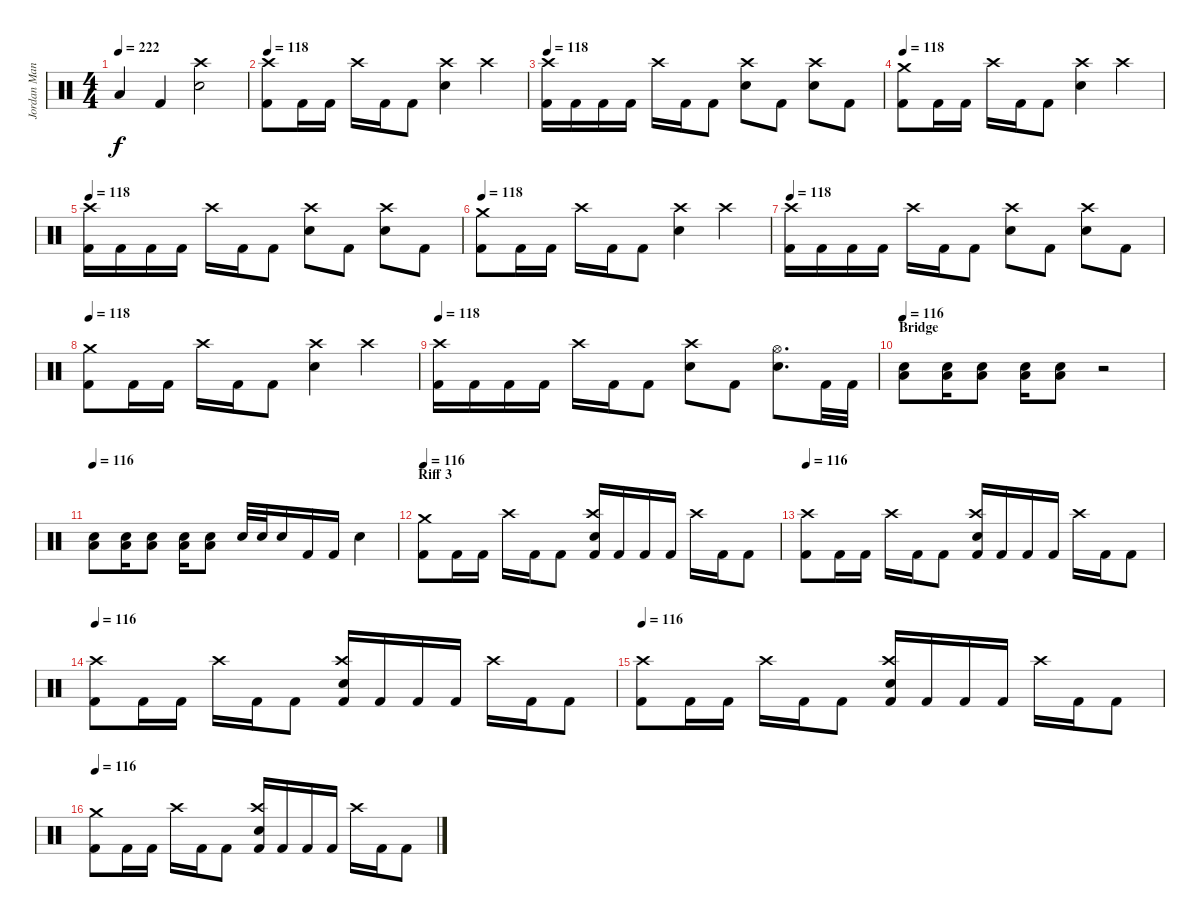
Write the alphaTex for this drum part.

\track ("Jordan Mancino (Drums)" "Jordan Man") {instrument percussion}
\staff {score}
\articulation defaults
\ts (4 4)
\tempo 222
\clef neutral
\ks c "Low Tom (hit)".4{dy f} "Kick (hit) 2".4
("Crash high (hit)" "Snare (hit) 2").2 |
\tempo 118
("Crash high (hit)" "Kick (hit) 2").8 "Kick (hit) 2".16 "Kick (hit) 2".16 "Crash high (hit)".16 "Kick (hit) 2".16 "Kick (hit) 2".8 ("Crash high (hit)" "Snare (hit) 2").4 "Crash high (hit)".4 |
\tempo 118
("Crash high (hit)" "Kick (hit) 2").16 "Kick (hit) 2".16 "Kick (hit) 2".16 "Kick (hit) 2".16 "Crash high (hit)".16 "Kick (hit) 2".16 "Kick (hit) 2".8 ("Crash high (hit)" "Snare (hit) 2").8 "Kick (hit) 2".8 ("Crash high (hit)" "Snare (hit) 2").8 "Kick (hit) 2".8 |
\tempo 118
("Crash medium (hit)" "Kick (hit) 2").8 "Kick (hit) 2".16 "Kick (hit) 2".16 "Crash high (hit)".16 "Kick (hit) 2".16 "Kick (hit) 2".8 ("Crash high (hit)" "Snare (hit) 2").4 "Crash high (hit)".4 |
\tempo 118
("Crash high (hit)" "Kick (hit) 2").16 "Kick (hit) 2".16 "Kick (hit) 2".16 "Kick (hit) 2".16 "Crash high (hit)".16 "Kick (hit) 2".16 "Kick (hit) 2".8 ("Crash high (hit)" "Snare (hit) 2").8 "Kick (hit) 2".8 ("Crash high (hit)" "Snare (hit) 2").8 "Kick (hit) 2".8 |
\tempo 118
("Crash medium (hit)" "Kick (hit) 2").8 "Kick (hit) 2".16 "Kick (hit) 2".16 "Crash high (hit)".16 "Kick (hit) 2".16 "Kick (hit) 2".8 ("Crash high (hit)" "Snare (hit) 2").4 "Crash high (hit)".4 |
\tempo 118
("Crash high (hit)" "Kick (hit) 2").16 "Kick (hit) 2".16 "Kick (hit) 2".16 "Kick (hit) 2".16 "Crash high (hit)".16 "Kick (hit) 2".16 "Kick (hit) 2".8 ("Crash high (hit)" "Snare (hit) 2").8 "Kick (hit) 2".8 ("Crash high (hit)" "Snare (hit) 2").8 "Kick (hit) 2".8 |
\tempo 118
("Crash medium (hit)" "Kick (hit) 2").8 "Kick (hit) 2".16 "Kick (hit) 2".16 "Crash high (hit)".16 "Kick (hit) 2".16 "Kick (hit) 2".8 ("Crash high (hit)" "Snare (hit) 2").4 "Crash high (hit)".4 |
\tempo 118
("Crash high (hit)" "Kick (hit) 2").16 "Kick (hit) 2".16 "Kick (hit) 2".16 "Kick (hit) 2".16 "Crash high (hit)".16 "Kick (hit) 2".16 "Kick (hit) 2".8 ("Crash high (hit)" "Snare (hit) 2").8 "Kick (hit) 2".8 ("Hi-Hat (open)" "Snare (hit) 2").8{d} "Kick (hit) 2".32 "Kick (hit) 2".32 |
\section ("" "Bridge")
\tempo 116
("Low Floor Tom (hit)" "Snare (hit) 2").8 ("Low Floor Tom (hit)" "Snare (hit) 2").16 ("Low Floor Tom (hit)" "Snare (hit) 2").8 ("Low Floor Tom (hit)" "Snare (hit) 2").16 ("Low Floor Tom (hit)" "Snare (hit) 2").8 r.2 |
\tempo 116
("Low Floor Tom (hit)" "Snare (hit) 2").8 ("Low Floor Tom (hit)" "Snare (hit) 2").16 ("Low Floor Tom (hit)" "Snare (hit) 2").8 ("Low Floor Tom (hit)" "Snare (hit) 2").16 ("Low Floor Tom (hit)" "Snare (hit) 2").8 "Snare (hit) 2".32 "Snare (hit) 2".32 "Snare (hit) 2".16 "Kick (hit) 2".16 "Kick (hit) 2".16 "Snare (hit) 2".4 |
\section ("" "Riff 3")
\tempo 116
("Crash medium (hit)" "Kick (hit) 2").8 "Kick (hit) 2".16 "Kick (hit) 2".16 "Crash high (hit)".16 "Kick (hit) 2".16 "Kick (hit) 2".8 ("Crash high (hit)" "Snare (hit) 2" "Kick (hit) 2").16 "Kick (hit) 2".16 "Kick (hit) 2".16 "Kick (hit) 2".16 "Crash high (hit)".16 "Kick (hit) 2".16 "Kick (hit) 2".8 |
\tempo 116
("Crash high (hit)" "Kick (hit) 2").8 "Kick (hit) 2".16 "Kick (hit) 2".16 "Crash high (hit)".16 "Kick (hit) 2".16 "Kick (hit) 2".8 ("Crash high (hit)" "Snare (hit) 2" "Kick (hit) 2").16 "Kick (hit) 2".16 "Kick (hit) 2".16 "Kick (hit) 2".16 "Crash high (hit)".16 "Kick (hit) 2".16 "Kick (hit) 2".8 |
\tempo 116
("Crash high (hit)" "Kick (hit) 2").8 "Kick (hit) 2".16 "Kick (hit) 2".16 "Crash high (hit)".16 "Kick (hit) 2".16 "Kick (hit) 2".8 ("Crash high (hit)" "Snare (hit) 2" "Kick (hit) 2").16 "Kick (hit) 2".16 "Kick (hit) 2".16 "Kick (hit) 2".16 "Crash high (hit)".16 "Kick (hit) 2".16 "Kick (hit) 2".8 |
\tempo 116
("Crash high (hit)" "Kick (hit) 2").8 "Kick (hit) 2".16 "Kick (hit) 2".16 "Crash high (hit)".16 "Kick (hit) 2".16 "Kick (hit) 2".8 ("Crash high (hit)" "Snare (hit) 2" "Kick (hit) 2").16 "Kick (hit) 2".16 "Kick (hit) 2".16 "Kick (hit) 2".16 "Crash high (hit)".16 "Kick (hit) 2".16 "Kick (hit) 2".8 |
\tempo 116
("Crash medium (hit)" "Kick (hit) 2").8 "Kick (hit) 2".16 "Kick (hit) 2".16 "Crash high (hit)".16 "Kick (hit) 2".16 "Kick (hit) 2".8 ("Crash high (hit)" "Snare (hit) 2" "Kick (hit) 2").16 "Kick (hit) 2".16 "Kick (hit) 2".16 "Kick (hit) 2".16 "Crash high (hit)".16 "Kick (hit) 2".16 "Kick (hit) 2".8
